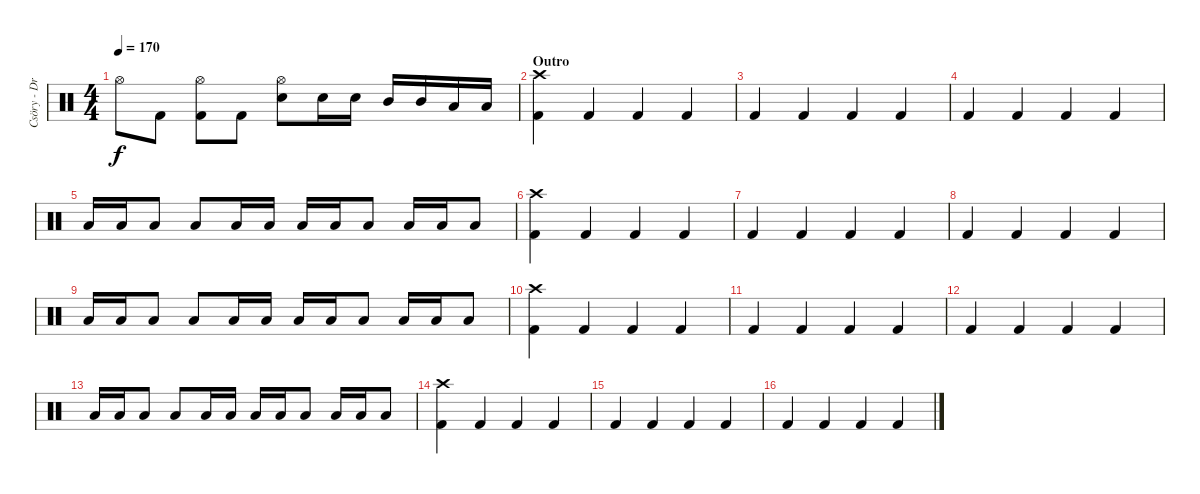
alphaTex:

\track ("Csöry - DrumZ" "Csöry - Dr") {instrument percussion}
\staff {score}
\articulation defaults
\ts (4 4)
\tempo 170
\clef neutral
\ks c "Hi-Hat (open)".8{dy f} "Kick (hit) 2".8
("Hi-Hat (open)" "Kick (hit) 2").8 "Kick (hit) 2".8 ("Hi-Hat (open)" "Snare (hit) 2").8 "Snare (hit) 2".16 "Snare (hit) 2".16 "Mid Tom (hit)".16 "Mid Tom (hit)".16 "Low Tom (hit)".16 "Low Tom (hit)".16 |
\section ("" "Outro")
("Crash high (hit)" "Kick (hit) 2").4 "Kick (hit) 2".4 "Kick (hit) 2".4 "Kick (hit) 2".4 |
"Kick (hit) 2".4 "Kick (hit) 2".4 "Kick (hit) 2".4 "Kick (hit) 2".4 |
"Kick (hit) 2".4 "Kick (hit) 2".4 "Kick (hit) 2".4 "Kick (hit) 2".4 |
"Low Tom (hit)".16 "Low Tom (hit)".16 "Low Tom (hit)".8 "Low Tom (hit)".8 "Low Tom (hit)".16 "Low Tom (hit)".16 "Low Tom (hit)".16 "Low Tom (hit)".16 "Low Tom (hit)".8 "Low Tom (hit)".16 "Low Tom (hit)".16 "Low Tom (hit)".8 |
("Crash high (hit)" "Kick (hit) 2").4 "Kick (hit) 2".4 "Kick (hit) 2".4 "Kick (hit) 2".4 |
"Kick (hit) 2".4 "Kick (hit) 2".4 "Kick (hit) 2".4 "Kick (hit) 2".4 |
"Kick (hit) 2".4 "Kick (hit) 2".4 "Kick (hit) 2".4 "Kick (hit) 2".4 |
"Low Tom (hit)".16 "Low Tom (hit)".16 "Low Tom (hit)".8 "Low Tom (hit)".8 "Low Tom (hit)".16 "Low Tom (hit)".16 "Low Tom (hit)".16 "Low Tom (hit)".16 "Low Tom (hit)".8 "Low Tom (hit)".16 "Low Tom (hit)".16 "Low Tom (hit)".8 |
("Crash high (hit)" "Kick (hit) 2").4 "Kick (hit) 2".4 "Kick (hit) 2".4 "Kick (hit) 2".4 |
"Kick (hit) 2".4 "Kick (hit) 2".4 "Kick (hit) 2".4 "Kick (hit) 2".4 |
"Kick (hit) 2".4 "Kick (hit) 2".4 "Kick (hit) 2".4 "Kick (hit) 2".4 |
"Low Tom (hit)".16 "Low Tom (hit)".16 "Low Tom (hit)".8 "Low Tom (hit)".8 "Low Tom (hit)".16 "Low Tom (hit)".16 "Low Tom (hit)".16 "Low Tom (hit)".16 "Low Tom (hit)".8 "Low Tom (hit)".16 "Low Tom (hit)".16 "Low Tom (hit)".8 |
("Crash high (hit)" "Kick (hit) 2").4 "Kick (hit) 2".4 "Kick (hit) 2".4 "Kick (hit) 2".4 |
"Kick (hit) 2".4 "Kick (hit) 2".4 "Kick (hit) 2".4 "Kick (hit) 2".4 |
"Kick (hit) 2".4 "Kick (hit) 2".4 "Kick (hit) 2".4 "Kick (hit) 2".4
